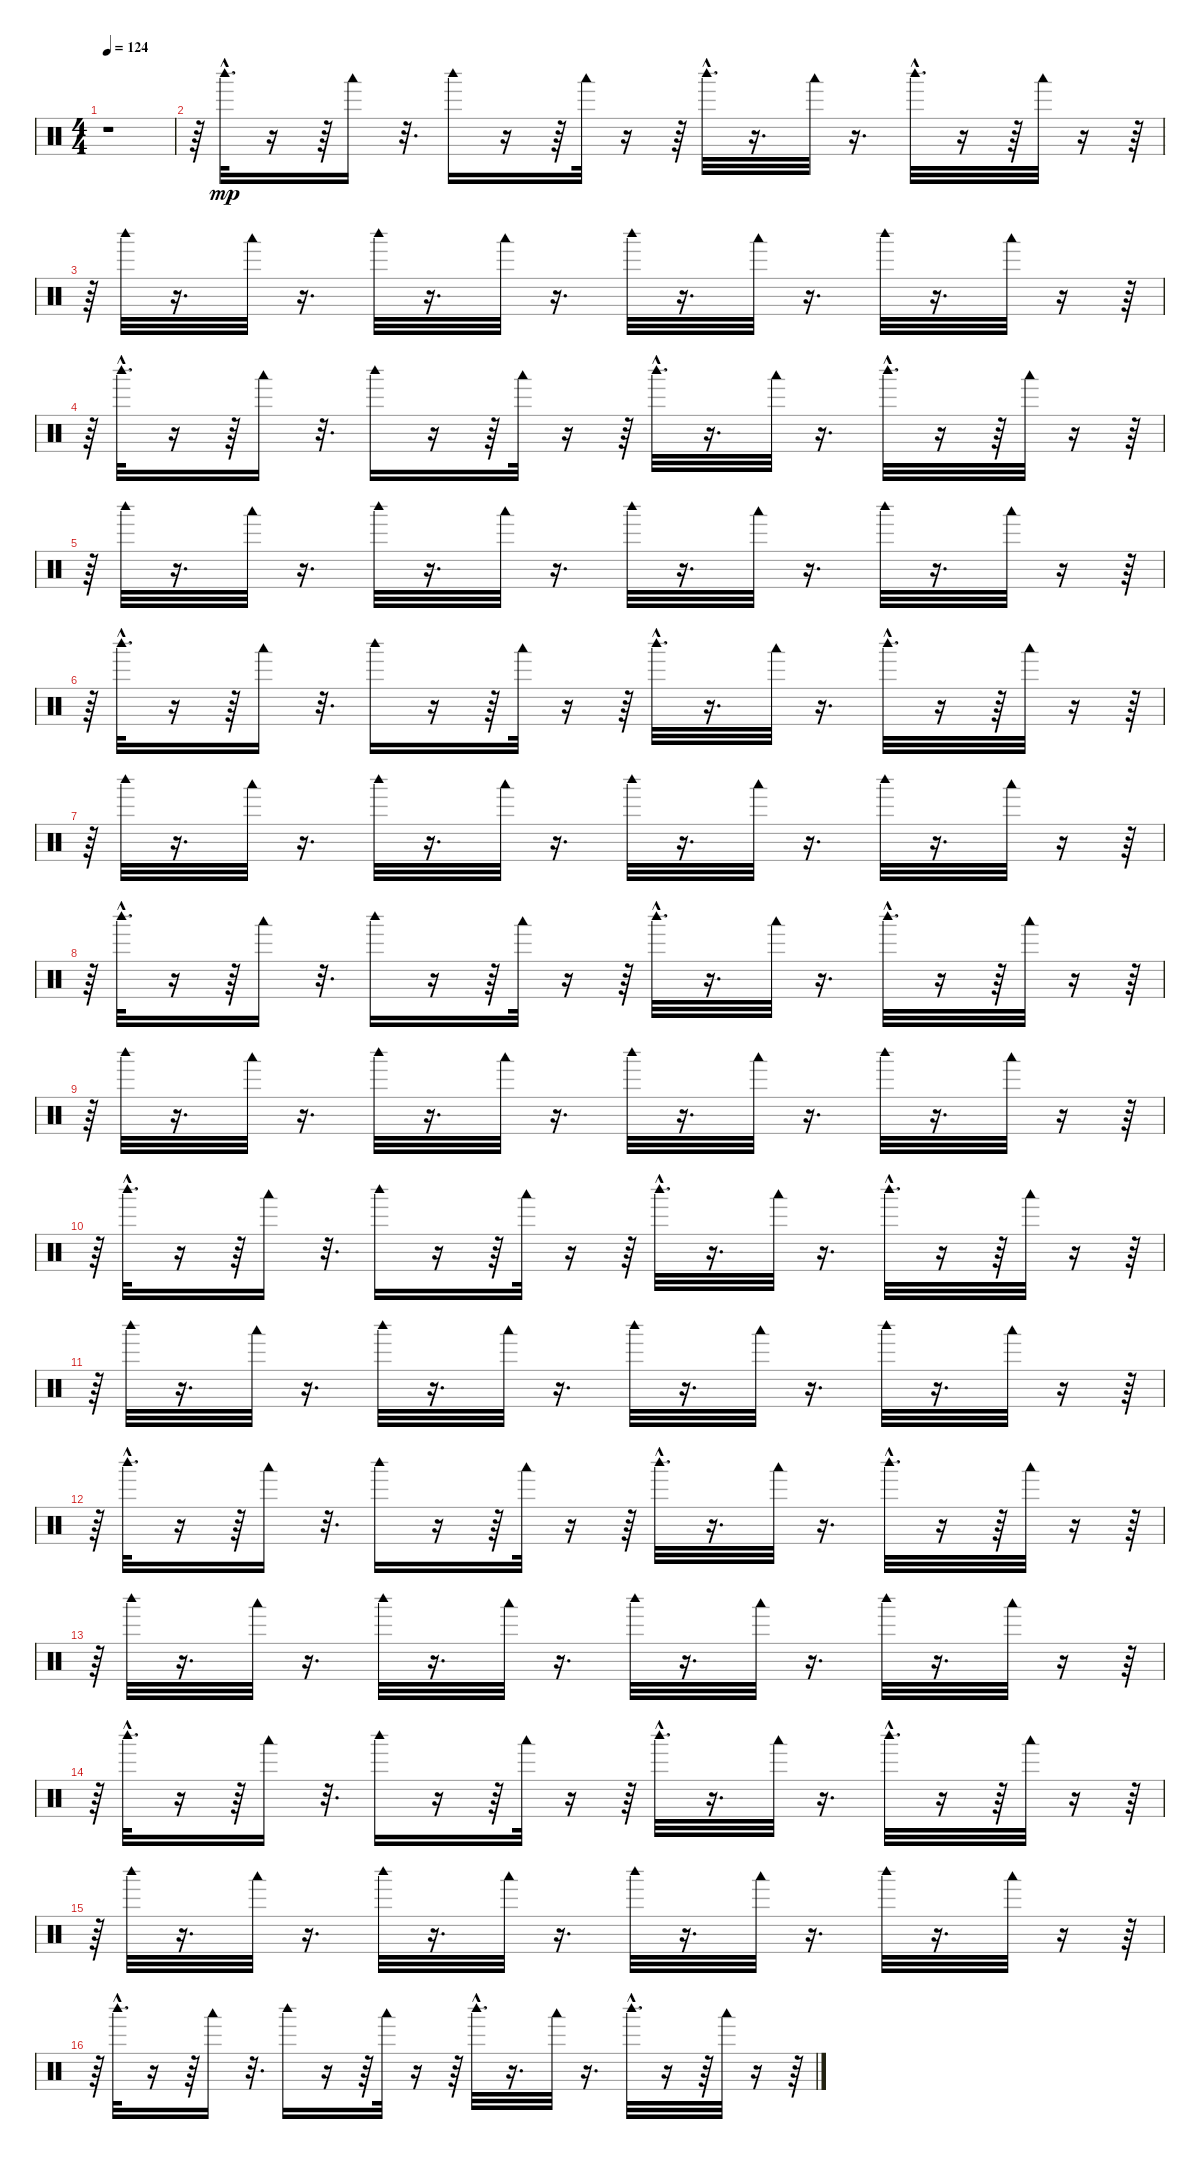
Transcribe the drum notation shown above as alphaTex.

\track "" {instrument percussion}
\staff {score}
\articulation defaults
\ts (4 4)
\tempo 124
\clef neutral
\ks c
r.1{dy mp} |
r.64 "Woodblock high (hit)"{hac}.32{d} r.16 r.64 "Woodblock low (hit)".16 r.32{d} "Woodblock high (hit)".16 r.16 r.64 "Woodblock low (hit)".32 r.16 r.64 "Woodblock high (hit)"{hac}.32{d} r.16{d} "Woodblock low (hit)".32 r.16{d} "Woodblock high (hit)"{hac}.32{d} r.16 r.64 "Woodblock low (hit)".32 r.16 r.64 |
r.64 "Woodblock high (hit)".32 r.16{d} "Woodblock low (hit)".32 r.16{d} "Woodblock high (hit)".32 r.16{d} "Woodblock low (hit)".32 r.16{d} "Woodblock high (hit)".32 r.16{d} "Woodblock low (hit)".32 r.16{d} "Woodblock high (hit)".32 r.16{d} "Woodblock low (hit)".32 r.16 r.64 |
r.64 "Woodblock high (hit)"{hac}.32{d} r.16 r.64 "Woodblock low (hit)".16 r.32{d} "Woodblock high (hit)".16 r.16 r.64 "Woodblock low (hit)".32 r.16 r.64 "Woodblock high (hit)"{hac}.32{d} r.16{d} "Woodblock low (hit)".32 r.16{d} "Woodblock high (hit)"{hac}.32{d} r.16 r.64 "Woodblock low (hit)".32 r.16 r.64 |
r.64 "Woodblock high (hit)".32 r.16{d} "Woodblock low (hit)".32 r.16{d} "Woodblock high (hit)".32 r.16{d} "Woodblock low (hit)".32 r.16{d} "Woodblock high (hit)".32 r.16{d} "Woodblock low (hit)".32 r.16{d} "Woodblock high (hit)".32 r.16{d} "Woodblock low (hit)".32 r.16 r.64 |
r.64 "Woodblock high (hit)"{hac}.32{d} r.16 r.64 "Woodblock low (hit)".16 r.32{d} "Woodblock high (hit)".16 r.16 r.64 "Woodblock low (hit)".32 r.16 r.64 "Woodblock high (hit)"{hac}.32{d} r.16{d} "Woodblock low (hit)".32 r.16{d} "Woodblock high (hit)"{hac}.32{d} r.16 r.64 "Woodblock low (hit)".32 r.16 r.64 |
r.64 "Woodblock high (hit)".32 r.16{d} "Woodblock low (hit)".32 r.16{d} "Woodblock high (hit)".32 r.16{d} "Woodblock low (hit)".32 r.16{d} "Woodblock high (hit)".32 r.16{d} "Woodblock low (hit)".32 r.16{d} "Woodblock high (hit)".32 r.16{d} "Woodblock low (hit)".32 r.16 r.64 |
r.64 "Woodblock high (hit)"{hac}.32{d} r.16 r.64 "Woodblock low (hit)".16 r.32{d} "Woodblock high (hit)".16 r.16 r.64 "Woodblock low (hit)".32 r.16 r.64 "Woodblock high (hit)"{hac}.32{d} r.16{d} "Woodblock low (hit)".32 r.16{d} "Woodblock high (hit)"{hac}.32{d} r.16 r.64 "Woodblock low (hit)".32 r.16 r.64 |
r.64 "Woodblock high (hit)".32 r.16{d} "Woodblock low (hit)".32 r.16{d} "Woodblock high (hit)".32 r.16{d} "Woodblock low (hit)".32 r.16{d} "Woodblock high (hit)".32 r.16{d} "Woodblock low (hit)".32 r.16{d} "Woodblock high (hit)".32 r.16{d} "Woodblock low (hit)".32 r.16 r.64 |
r.64 "Woodblock high (hit)"{hac}.32{d} r.16 r.64 "Woodblock low (hit)".16 r.32{d} "Woodblock high (hit)".16 r.16 r.64 "Woodblock low (hit)".32 r.16 r.64 "Woodblock high (hit)"{hac}.32{d} r.16{d} "Woodblock low (hit)".32 r.16{d} "Woodblock high (hit)"{hac}.32{d} r.16 r.64 "Woodblock low (hit)".32 r.16 r.64 |
r.64 "Woodblock high (hit)".32 r.16{d} "Woodblock low (hit)".32 r.16{d} "Woodblock high (hit)".32 r.16{d} "Woodblock low (hit)".32 r.16{d} "Woodblock high (hit)".32 r.16{d} "Woodblock low (hit)".32 r.16{d} "Woodblock high (hit)".32 r.16{d} "Woodblock low (hit)".32 r.16 r.64 |
r.64 "Woodblock high (hit)"{hac}.32{d} r.16 r.64 "Woodblock low (hit)".16 r.32{d} "Woodblock high (hit)".16 r.16 r.64 "Woodblock low (hit)".32 r.16 r.64 "Woodblock high (hit)"{hac}.32{d} r.16{d} "Woodblock low (hit)".32 r.16{d} "Woodblock high (hit)"{hac}.32{d} r.16 r.64 "Woodblock low (hit)".32 r.16 r.64 |
r.64 "Woodblock high (hit)".32 r.16{d} "Woodblock low (hit)".32 r.16{d} "Woodblock high (hit)".32 r.16{d} "Woodblock low (hit)".32 r.16{d} "Woodblock high (hit)".32 r.16{d} "Woodblock low (hit)".32 r.16{d} "Woodblock high (hit)".32 r.16{d} "Woodblock low (hit)".32 r.16 r.64 |
r.64 "Woodblock high (hit)"{hac}.32{d} r.16 r.64 "Woodblock low (hit)".16 r.32{d} "Woodblock high (hit)".16 r.16 r.64 "Woodblock low (hit)".32 r.16 r.64 "Woodblock high (hit)"{hac}.32{d} r.16{d} "Woodblock low (hit)".32 r.16{d} "Woodblock high (hit)"{hac}.32{d} r.16 r.64 "Woodblock low (hit)".32 r.16 r.64 |
r.64 "Woodblock high (hit)".32 r.16{d} "Woodblock low (hit)".32 r.16{d} "Woodblock high (hit)".32 r.16{d} "Woodblock low (hit)".32 r.16{d} "Woodblock high (hit)".32 r.16{d} "Woodblock low (hit)".32 r.16{d} "Woodblock high (hit)".32 r.16{d} "Woodblock low (hit)".32 r.16 r.64 |
r.64 "Woodblock high (hit)"{hac}.32{d} r.16 r.64 "Woodblock low (hit)".16 r.32{d} "Woodblock high (hit)".16 r.16 r.64 "Woodblock low (hit)".32 r.16 r.64 "Woodblock high (hit)"{hac}.32{d} r.16{d} "Woodblock low (hit)".32 r.16{d} "Woodblock high (hit)"{hac}.32{d} r.16 r.64 "Woodblock low (hit)".32 r.16 r.64
